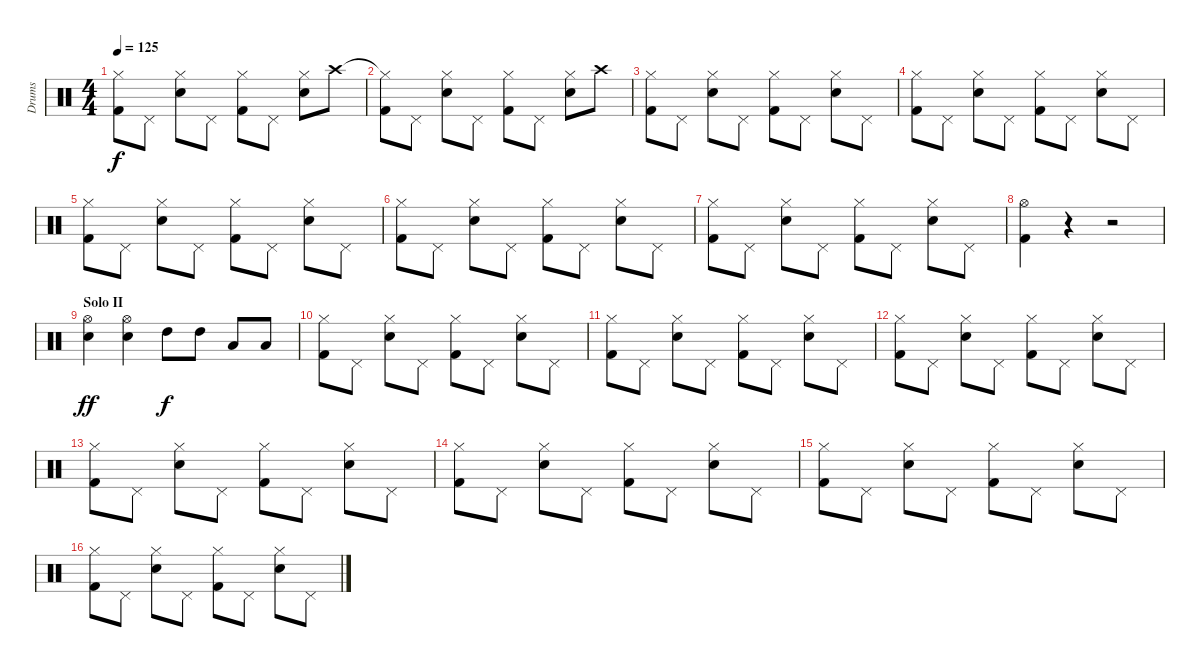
\track ("Drums" "Drums") {instrument percussion}
\staff {score}
\articulation defaults
\ts (4 4)
\tempo 125
\clef neutral
\ks c
("Hi-Hat (closed)"{t} "Kick (hit) 2").8{dy f} "Pedal Hi-Hat (hit)".8 ("Hi-Hat (closed)" "Electric Snare (hit)").8 "Pedal Hi-Hat (hit)".8 ("Hi-Hat (closed)" "Kick (hit) 2").8 "Pedal Hi-Hat (hit)".8 ("Hi-Hat (closed)" "Electric Snare (hit)").8 "Crash high (hit)".8 |
("Hi-Hat (closed)"{t} "Kick (hit) 2").8 "Pedal Hi-Hat (hit)".8 ("Hi-Hat (closed)" "Electric Snare (hit)").8 "Pedal Hi-Hat (hit)".8 ("Hi-Hat (closed)" "Kick (hit) 2").8 "Pedal Hi-Hat (hit)".8 ("Hi-Hat (closed)" "Electric Snare (hit)").8 "Crash high (hit)".8 |
("Hi-Hat (closed)" "Kick (hit) 2").8 "Pedal Hi-Hat (hit)".8 ("Hi-Hat (closed)" "Electric Snare (hit)").8 "Pedal Hi-Hat (hit)".8 ("Hi-Hat (closed)" "Kick (hit) 2").8 "Pedal Hi-Hat (hit)".8 ("Hi-Hat (closed)" "Electric Snare (hit)").8 "Pedal Hi-Hat (hit)".8 |
("Hi-Hat (closed)" "Kick (hit) 2").8 "Pedal Hi-Hat (hit)".8 ("Hi-Hat (closed)" "Electric Snare (hit)").8 "Pedal Hi-Hat (hit)".8 ("Hi-Hat (closed)" "Kick (hit) 2").8 "Pedal Hi-Hat (hit)".8 ("Hi-Hat (closed)" "Electric Snare (hit)").8 "Pedal Hi-Hat (hit)".8 |
("Hi-Hat (closed)" "Kick (hit) 2").8 "Pedal Hi-Hat (hit)".8 ("Hi-Hat (closed)" "Electric Snare (hit)").8 "Pedal Hi-Hat (hit)".8 ("Hi-Hat (closed)" "Kick (hit) 2").8 "Pedal Hi-Hat (hit)".8 ("Hi-Hat (closed)" "Electric Snare (hit)").8 "Pedal Hi-Hat (hit)".8 |
("Hi-Hat (closed)" "Kick (hit) 2").8 "Pedal Hi-Hat (hit)".8 ("Hi-Hat (closed)" "Electric Snare (hit)").8 "Pedal Hi-Hat (hit)".8 ("Hi-Hat (closed)" "Kick (hit) 2").8 "Pedal Hi-Hat (hit)".8 ("Hi-Hat (closed)" "Electric Snare (hit)").8 "Pedal Hi-Hat (hit)".8 |
("Hi-Hat (closed)" "Kick (hit) 2").8 "Pedal Hi-Hat (hit)".8 ("Hi-Hat (closed)" "Electric Snare (hit)").8 "Pedal Hi-Hat (hit)".8 ("Hi-Hat (closed)" "Kick (hit) 2").8 "Pedal Hi-Hat (hit)".8 ("Hi-Hat (closed)" "Electric Snare (hit)").8 "Pedal Hi-Hat (hit)".8 |
("Hi-Hat (open)" "Kick (hit) 2").4 r.4 r.2 |
\section ("" "Solo II")
("Hi-Hat (open)" "Snare (hit) 2").4{dy ff} ("Hi-Hat (open)" "Snare (hit) 2").4 "High Tom (hit)".8{dy f} "High Tom (hit)".8 "Low Tom (hit)".8 "Low Tom (hit)".8 |
("Hi-Hat (closed)" "Kick (hit) 2").8 "Pedal Hi-Hat (hit)".8 ("Hi-Hat (closed)" "Electric Snare (hit)").8 "Pedal Hi-Hat (hit)".8 ("Hi-Hat (closed)" "Kick (hit) 2").8 "Pedal Hi-Hat (hit)".8 ("Hi-Hat (closed)" "Electric Snare (hit)").8 "Pedal Hi-Hat (hit)".8 |
("Hi-Hat (closed)" "Kick (hit) 2").8 "Pedal Hi-Hat (hit)".8 ("Hi-Hat (closed)" "Electric Snare (hit)").8 "Pedal Hi-Hat (hit)".8 ("Hi-Hat (closed)" "Kick (hit) 2").8 "Pedal Hi-Hat (hit)".8 ("Hi-Hat (closed)" "Electric Snare (hit)").8 "Pedal Hi-Hat (hit)".8 |
("Hi-Hat (closed)" "Kick (hit) 2").8 "Pedal Hi-Hat (hit)".8 ("Hi-Hat (closed)" "Electric Snare (hit)").8 "Pedal Hi-Hat (hit)".8 ("Hi-Hat (closed)" "Kick (hit) 2").8 "Pedal Hi-Hat (hit)".8 ("Hi-Hat (closed)" "Electric Snare (hit)").8 "Pedal Hi-Hat (hit)".8 |
("Hi-Hat (closed)" "Kick (hit) 2").8 "Pedal Hi-Hat (hit)".8 ("Hi-Hat (closed)" "Electric Snare (hit)").8 "Pedal Hi-Hat (hit)".8 ("Hi-Hat (closed)" "Kick (hit) 2").8 "Pedal Hi-Hat (hit)".8 ("Hi-Hat (closed)" "Electric Snare (hit)").8 "Pedal Hi-Hat (hit)".8 |
("Hi-Hat (closed)" "Kick (hit) 2").8 "Pedal Hi-Hat (hit)".8 ("Hi-Hat (closed)" "Electric Snare (hit)").8 "Pedal Hi-Hat (hit)".8 ("Hi-Hat (closed)" "Kick (hit) 2").8 "Pedal Hi-Hat (hit)".8 ("Hi-Hat (closed)" "Electric Snare (hit)").8 "Pedal Hi-Hat (hit)".8 |
("Hi-Hat (closed)" "Kick (hit) 2").8 "Pedal Hi-Hat (hit)".8 ("Hi-Hat (closed)" "Electric Snare (hit)").8 "Pedal Hi-Hat (hit)".8 ("Hi-Hat (closed)" "Kick (hit) 2").8 "Pedal Hi-Hat (hit)".8 ("Hi-Hat (closed)" "Electric Snare (hit)").8 "Pedal Hi-Hat (hit)".8 |
("Hi-Hat (closed)" "Kick (hit) 2").8 "Pedal Hi-Hat (hit)".8 ("Hi-Hat (closed)" "Electric Snare (hit)").8 "Pedal Hi-Hat (hit)".8 ("Hi-Hat (closed)" "Kick (hit) 2").8 "Pedal Hi-Hat (hit)".8 ("Hi-Hat (closed)" "Electric Snare (hit)").8 "Pedal Hi-Hat (hit)".8
